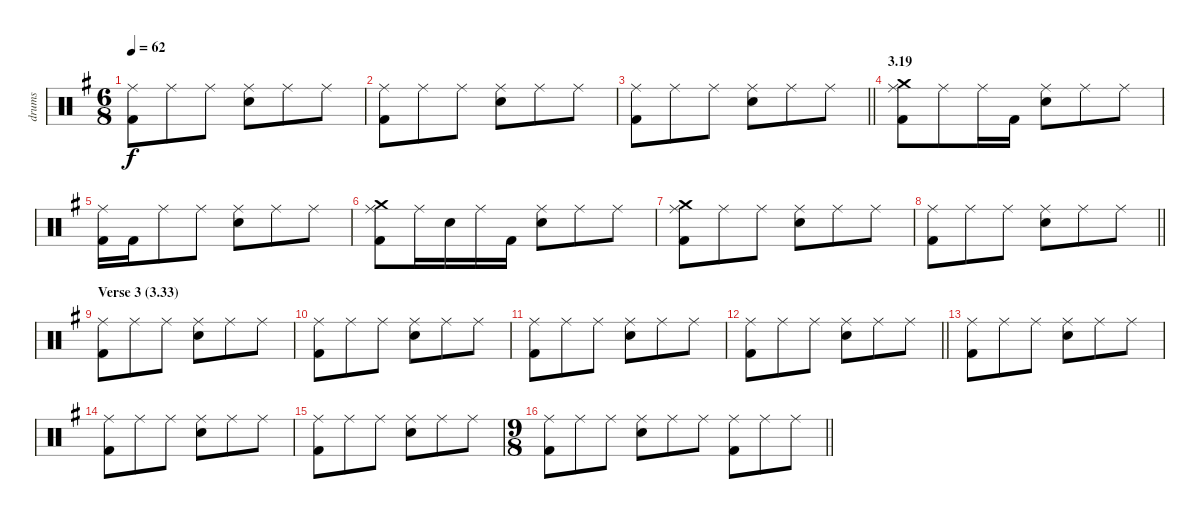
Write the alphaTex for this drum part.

\track ("drums" "drums") {instrument percussion}
\staff {score}
\articulation defaults
\ts (6 8)
\tempo 62
\clef neutral
\ks g
("Ride (middle)" "Kick (hit) 2").8{dy f} "Ride (middle)".8 "Ride (middle)".8 ("Ride (middle)" "Electric Snare (hit)").8 "Ride (middle)".8 "Ride (middle)".8 |
("Ride (middle)" "Kick (hit) 2").8 "Ride (middle)".8 "Ride (middle)".8 ("Ride (middle)" "Electric Snare (hit)").8 "Ride (middle)".8 "Ride (middle)".8 |
\barLineRight lightlight
("Ride (middle)" "Kick (hit) 2").8 "Ride (middle)".8 "Ride (middle)".8 ("Ride (middle)" "Electric Snare (hit)").8 "Ride (middle)".8 "Ride (middle)".8 |
\section ("" "3.19")
("Ride (middle)" "Crash medium (hit)" "Kick (hit) 2").8 "Ride (middle)".8 "Ride (middle)".16 "Kick (hit) 2".16 ("Ride (middle)" "Electric Snare (hit)").8 "Ride (middle)".8 "Ride (middle)".8 |
("Ride (middle)" "Kick (hit) 2").16 "Kick (hit) 2".16 "Ride (middle)".8 "Ride (middle)".8 ("Ride (middle)" "Electric Snare (hit)").8 "Ride (middle)".8 "Ride (middle)".8 |
("Ride (middle)" "Crash medium (hit)" "Kick (hit) 2").8 "Ride (middle)".16 "Electric Snare (hit)".16 "Ride (middle)".16 "Kick (hit) 2".16 ("Ride (middle)" "Electric Snare (hit)").8 "Ride (middle)".8 "Ride (middle)".8 |
("Ride (middle)" "Crash medium (hit)" "Kick (hit) 2").8 "Ride (middle)".8 "Ride (middle)".8 ("Ride (middle)" "Electric Snare (hit)").8 "Ride (middle)".8 "Ride (middle)".8 |
\barLineRight lightlight
("Ride (middle)" "Kick (hit) 2").8 "Ride (middle)".8 "Ride (middle)".8 ("Ride (middle)" "Electric Snare (hit)").8 "Ride (middle)".8 "Ride (middle)".8 |
\section ("" "Verse 3 (3.33)")
("Ride (middle)" "Kick (hit) 2").8 "Ride (middle)".8 "Ride (middle)".8 ("Ride (middle)" "Electric Snare (hit)").8 "Ride (middle)".8 "Ride (middle)".8 |
("Ride (middle)" "Kick (hit) 2").8 "Ride (middle)".8 "Ride (middle)".8 ("Ride (middle)" "Electric Snare (hit)").8 "Ride (middle)".8 "Ride (middle)".8 |
("Ride (middle)" "Kick (hit) 2").8 "Ride (middle)".8 "Ride (middle)".8 ("Ride (middle)" "Electric Snare (hit)").8 "Ride (middle)".8 "Ride (middle)".8 |
\barLineRight lightlight
("Ride (middle)" "Kick (hit) 2").8 "Ride (middle)".8 "Ride (middle)".8 ("Ride (middle)" "Electric Snare (hit)").8 "Ride (middle)".8 "Ride (middle)".8 |
("Ride (middle)" "Kick (hit) 2").8 "Ride (middle)".8 "Ride (middle)".8 ("Ride (middle)" "Electric Snare (hit)").8 "Ride (middle)".8 "Ride (middle)".8 |
("Ride (middle)" "Kick (hit) 2").8 "Ride (middle)".8 "Ride (middle)".8 ("Ride (middle)" "Electric Snare (hit)").8 "Ride (middle)".8 "Ride (middle)".8 |
("Ride (middle)" "Kick (hit) 2").8 "Ride (middle)".8 "Ride (middle)".8 ("Ride (middle)" "Electric Snare (hit)").8 "Ride (middle)".8 "Ride (middle)".8 |
\ts (9 8)
\barLineRight lightlight
("Ride (middle)" "Kick (hit) 2").8 "Ride (middle)".8 "Ride (middle)".8 ("Ride (middle)" "Electric Snare (hit)").8 "Ride (middle)".8 "Ride (middle)".8 ("Ride (middle)" "Kick (hit) 2").8 "Ride (middle)".8 "Ride (middle)".8
